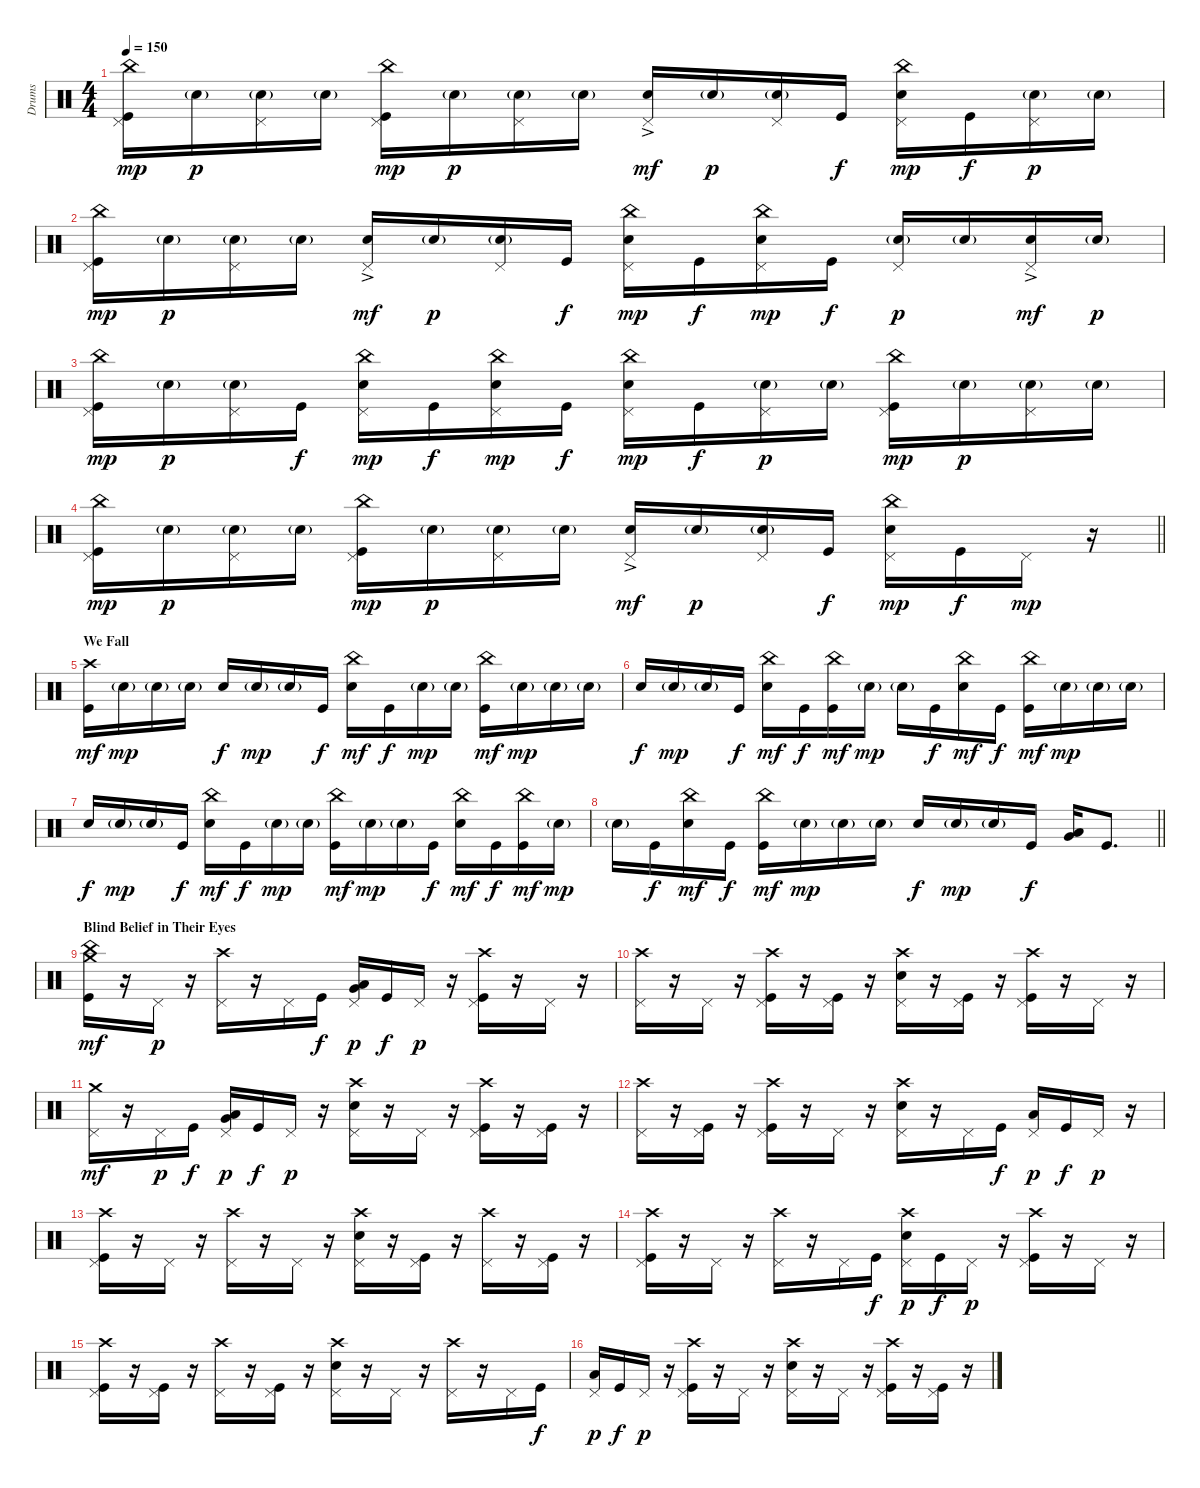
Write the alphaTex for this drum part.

\track ("Drums" "Drums") {instrument percussion}
\staff {score}
\articulation defaults
\ts (4 4)
\tempo 150
\clef neutral
\ks c
("China (hit)" "Pedal Hi-Hat (hit)" "Kick (hit)").16{dy mp} "Electric Snare (hit)"{g}.16{dy p} ("Pedal Hi-Hat (hit)" "Electric Snare (hit)"{g}).16 "Electric Snare (hit)"{g}.16 ("China (hit)" "Pedal Hi-Hat (hit)" "Kick (hit)").16{dy mp} "Electric Snare (hit)"{g}.16{dy p} ("Pedal Hi-Hat (hit)" "Electric Snare (hit)"{g}).16 "Electric Snare (hit)"{g}.16 ("Pedal Hi-Hat (hit)" "Electric Snare (hit)"{ac}).16{dy mf} "Electric Snare (hit)"{g}.16{dy p} ("Pedal Hi-Hat (hit)" "Electric Snare (hit)"{g}).16 "Kick (hit)".16{dy f} ("China (hit)" "Pedal Hi-Hat (hit)" "Electric Snare (hit)").16{dy mp} "Kick (hit)".16{dy f} ("Pedal Hi-Hat (hit)" "Electric Snare (hit)"{g}).16{dy p} "Electric Snare (hit)"{g}.16 |
("China (hit)" "Pedal Hi-Hat (hit)" "Kick (hit)").16{dy mp} "Electric Snare (hit)"{g}.16{dy p} ("Pedal Hi-Hat (hit)" "Electric Snare (hit)"{g}).16 "Electric Snare (hit)"{g}.16 ("Pedal Hi-Hat (hit)" "Electric Snare (hit)"{ac}).16{dy mf} "Electric Snare (hit)"{g}.16{dy p} ("Pedal Hi-Hat (hit)" "Electric Snare (hit)"{g}).16 "Kick (hit)".16{dy f} ("China (hit)" "Pedal Hi-Hat (hit)" "Electric Snare (hit)").16{dy mp} "Kick (hit)".16{dy f} ("China (hit)" "Pedal Hi-Hat (hit)" "Electric Snare (hit)").16{dy mp} "Kick (hit)".16{dy f} ("Pedal Hi-Hat (hit)" "Electric Snare (hit)"{g}).16{dy p} "Electric Snare (hit)"{g}.16 ("Pedal Hi-Hat (hit)" "Electric Snare (hit)"{ac}).16{dy mf} "Electric Snare (hit)"{g}.16{dy p} |
("China (hit)" "Pedal Hi-Hat (hit)" "Kick (hit)").16{dy mp} "Electric Snare (hit)"{g}.16{dy p} ("Pedal Hi-Hat (hit)" "Electric Snare (hit)"{g}).16 "Kick (hit)".16{dy f} ("China (hit)" "Pedal Hi-Hat (hit)" "Electric Snare (hit)").16{dy mp} "Kick (hit)".16{dy f} ("China (hit)" "Pedal Hi-Hat (hit)" "Electric Snare (hit)").16{dy mp} "Kick (hit)".16{dy f} ("China (hit)" "Pedal Hi-Hat (hit)" "Electric Snare (hit)").16{dy mp} "Kick (hit)".16{dy f} ("Pedal Hi-Hat (hit)" "Electric Snare (hit)"{g}).16{dy p} "Electric Snare (hit)"{g}.16 ("China (hit)" "Pedal Hi-Hat (hit)" "Kick (hit)").16{dy mp} "Electric Snare (hit)"{g}.16{dy p} ("Pedal Hi-Hat (hit)" "Electric Snare (hit)"{g}).16 "Electric Snare (hit)"{g}.16 |
\barLineRight lightlight
("China (hit)" "Pedal Hi-Hat (hit)" "Kick (hit)").16{dy mp} "Electric Snare (hit)"{g}.16{dy p} ("Pedal Hi-Hat (hit)" "Electric Snare (hit)"{g}).16 "Electric Snare (hit)"{g}.16 ("China (hit)" "Pedal Hi-Hat (hit)" "Kick (hit)").16{dy mp} "Electric Snare (hit)"{g}.16{dy p} ("Pedal Hi-Hat (hit)" "Electric Snare (hit)"{g}).16 "Electric Snare (hit)"{g}.16 ("Pedal Hi-Hat (hit)" "Electric Snare (hit)"{ac}).16{dy mf} "Electric Snare (hit)"{g}.16{dy p} ("Pedal Hi-Hat (hit)" "Electric Snare (hit)"{g}).16 "Kick (hit)".16{dy f} ("China (hit)" "Pedal Hi-Hat (hit)" "Electric Snare (hit)").16{dy mp} "Kick (hit)".16{dy f} "Pedal Hi-Hat (hit)".16{dy mp} r.16 |
\section ("" "We Fall")
("Crash high (hit)" "Kick (hit)").16{dy mf} "Electric Snare (hit)"{g}.16{dy mp} "Electric Snare (hit)"{g}.16 "Electric Snare (hit)"{g}.16 "Electric Snare (hit)".16{dy f} "Electric Snare (hit)"{g}.16{dy mp} "Electric Snare (hit)"{g}.16 "Kick (hit)".16{dy f} ("China (hit)" "Electric Snare (hit)").16{dy mf} "Kick (hit)".16{dy f} "Electric Snare (hit)"{g}.16{dy mp} "Electric Snare (hit)"{g}.16 ("China (hit)" "Kick (hit)").16{dy mf} "Electric Snare (hit)"{g}.16{dy mp} "Electric Snare (hit)"{g}.16 "Electric Snare (hit)"{g}.16 |
"Electric Snare (hit)".16{dy f} "Electric Snare (hit)"{g}.16{dy mp} "Electric Snare (hit)"{g}.16 "Kick (hit)".16{dy f} ("China (hit)" "Electric Snare (hit)").16{dy mf} "Kick (hit)".16{dy f} ("China (hit)" "Kick (hit)").16{dy mf} "Electric Snare (hit)"{g}.16{dy mp} "Electric Snare (hit)"{g}.16 "Kick (hit)".16{dy f} ("China (hit)" "Electric Snare (hit)").16{dy mf} "Kick (hit)".16{dy f} ("China (hit)" "Kick (hit)").16{dy mf} "Electric Snare (hit)"{g}.16{dy mp} "Electric Snare (hit)"{g}.16 "Electric Snare (hit)"{g}.16 |
"Electric Snare (hit)".16{dy f} "Electric Snare (hit)"{g}.16{dy mp} "Electric Snare (hit)"{g}.16 "Kick (hit)".16{dy f} ("China (hit)" "Electric Snare (hit)").16{dy mf} "Kick (hit)".16{dy f} "Electric Snare (hit)"{g}.16{dy mp} "Electric Snare (hit)"{g}.16 ("China (hit)" "Kick (hit)").16{dy mf} "Electric Snare (hit)"{g}.16{dy mp} "Electric Snare (hit)"{g}.16 "Kick (hit)".16{dy f} ("China (hit)" "Electric Snare (hit)").16{dy mf} "Kick (hit)".16{dy f} ("China (hit)" "Kick (hit)").16{dy mf} "Electric Snare (hit)"{g}.16{dy mp} |
\barLineRight lightlight "Electric Snare (hit)"{g}.16 "Kick (hit)".16{dy f}
("China (hit)" "Electric Snare (hit)").16{dy mf} "Kick (hit)".16{dy f} ("China (hit)" "Kick (hit)").16{dy mf} "Electric Snare (hit)"{g}.16{dy mp} "Electric Snare (hit)"{g}.16 "Electric Snare (hit)"{g}.16 "Electric Snare (hit)".16{dy f} "Electric Snare (hit)"{g}.16{dy mp} "Electric Snare (hit)"{g}.16 "Kick (hit)".16{dy f} ("Very Low Tom (hit)" "Low Floor Tom (hit)").16 "Kick (hit)".8{d} |
\section ("" "Blind Belief in Their Eyes")
("Crash medium (hit)" "China (hit)" "Kick (hit)").16{dy mf} r.16 "Pedal Hi-Hat (hit)".16{dy p} r.16 ("Crash high (hit)" "Pedal Hi-Hat (hit)").16 r.16 "Pedal Hi-Hat (hit)".16 "Kick (hit)".16{dy f} ("Pedal Hi-Hat (hit)" "Very Low Tom (hit)" "Low Floor Tom (hit)").16{dy p} "Kick (hit)".16{dy f} "Pedal Hi-Hat (hit)".16{dy p} r.16 ("Crash high (hit)" "Pedal Hi-Hat (hit)" "Kick (hit)").16 r.16 "Pedal Hi-Hat (hit)".16 r.16 |
("Crash high (hit)" "Pedal Hi-Hat (hit)").16 r.16 "Pedal Hi-Hat (hit)".16 r.16 ("Crash high (hit)" "Pedal Hi-Hat (hit)" "Kick (hit)").16 r.16 ("Pedal Hi-Hat (hit)" "Kick (hit)").16 r.16 ("Crash high (hit)" "Pedal Hi-Hat (hit)" "Electric Snare (hit)").16 r.16 ("Pedal Hi-Hat (hit)" "Kick (hit)").16 r.16 ("Crash high (hit)" "Pedal Hi-Hat (hit)" "Kick (hit)").16 r.16 "Pedal Hi-Hat (hit)".16 r.16 |
("Crash medium (hit)" "Pedal Hi-Hat (hit)").16{dy mf} r.16 "Pedal Hi-Hat (hit)".16{dy p} "Kick (hit)".16{dy f} ("Pedal Hi-Hat (hit)" "Low Floor Tom (hit)" "Very Low Tom (hit)").16{dy p} "Kick (hit)".16{dy f} "Pedal Hi-Hat (hit)".16{dy p} r.16 ("Crash high (hit)" "Pedal Hi-Hat (hit)" "Electric Snare (hit)").16 r.16 "Pedal Hi-Hat (hit)".16 r.16 ("Crash high (hit)" "Pedal Hi-Hat (hit)" "Kick (hit)").16 r.16 ("Pedal Hi-Hat (hit)" "Kick (hit)").16 r.16 |
("Crash high (hit)" "Pedal Hi-Hat (hit)").16 r.16 ("Pedal Hi-Hat (hit)" "Kick (hit)").16 r.16 ("Crash high (hit)" "Pedal Hi-Hat (hit)" "Kick (hit)").16 r.16 "Pedal Hi-Hat (hit)".16 r.16 ("Crash high (hit)" "Pedal Hi-Hat (hit)" "Electric Snare (hit)").16 r.16 "Pedal Hi-Hat (hit)".16 "Kick (hit)".16{dy f} ("Pedal Hi-Hat (hit)" "Low Floor Tom (hit)").16{dy p} "Kick (hit)".16{dy f} "Pedal Hi-Hat (hit)".16{dy p} r.16 |
("Crash high (hit)" "Pedal Hi-Hat (hit)" "Kick (hit)").16 r.16 "Pedal Hi-Hat (hit)".16 r.16 ("Crash high (hit)" "Pedal Hi-Hat (hit)").16 r.16 "Pedal Hi-Hat (hit)".16 r.16 ("Crash high (hit)" "Pedal Hi-Hat (hit)" "Electric Snare (hit)").16 r.16 ("Pedal Hi-Hat (hit)" "Kick (hit)").16 r.16 ("Crash high (hit)" "Pedal Hi-Hat (hit)").16 r.16 ("Pedal Hi-Hat (hit)" "Kick (hit)").16 r.16 |
("Crash high (hit)" "Pedal Hi-Hat (hit)" "Kick (hit)").16 r.16 "Pedal Hi-Hat (hit)".16 r.16 ("Crash high (hit)" "Pedal Hi-Hat (hit)").16 r.16 "Pedal Hi-Hat (hit)".16 "Kick (hit)".16{dy f} ("Crash high (hit)" "Pedal Hi-Hat (hit)" "Electric Snare (hit)").16{dy p} "Kick (hit)".16{dy f} "Pedal Hi-Hat (hit)".16{dy p} r.16 ("Crash high (hit)" "Pedal Hi-Hat (hit)" "Kick (hit)").16 r.16 "Pedal Hi-Hat (hit)".16 r.16 |
("Crash high (hit)" "Pedal Hi-Hat (hit)" "Kick (hit)").16 r.16 ("Pedal Hi-Hat (hit)" "Kick (hit)").16 r.16 ("Crash high (hit)" "Pedal Hi-Hat (hit)").16 r.16 ("Pedal Hi-Hat (hit)" "Kick (hit)").16 r.16 ("Crash high (hit)" "Pedal Hi-Hat (hit)" "Electric Snare (hit)").16 r.16 "Pedal Hi-Hat (hit)".16 r.16 ("Crash high (hit)" "Pedal Hi-Hat (hit)").16 r.16 "Pedal Hi-Hat (hit)".16 "Kick (hit)".16{dy f} |
("Pedal Hi-Hat (hit)" "Low Floor Tom (hit)").16{dy p} "Kick (hit)".16{dy f} "Pedal Hi-Hat (hit)".16{dy p} r.16 ("Crash high (hit)" "Pedal Hi-Hat (hit)" "Kick (hit)").16 r.16 "Pedal Hi-Hat (hit)".16 r.16 ("Crash high (hit)" "Pedal Hi-Hat (hit)" "Electric Snare (hit)").16 r.16 "Pedal Hi-Hat (hit)".16 r.16 ("Crash high (hit)" "Pedal Hi-Hat (hit)" "Kick (hit)").16 r.16 ("Pedal Hi-Hat (hit)" "Kick (hit)").16 r.16
